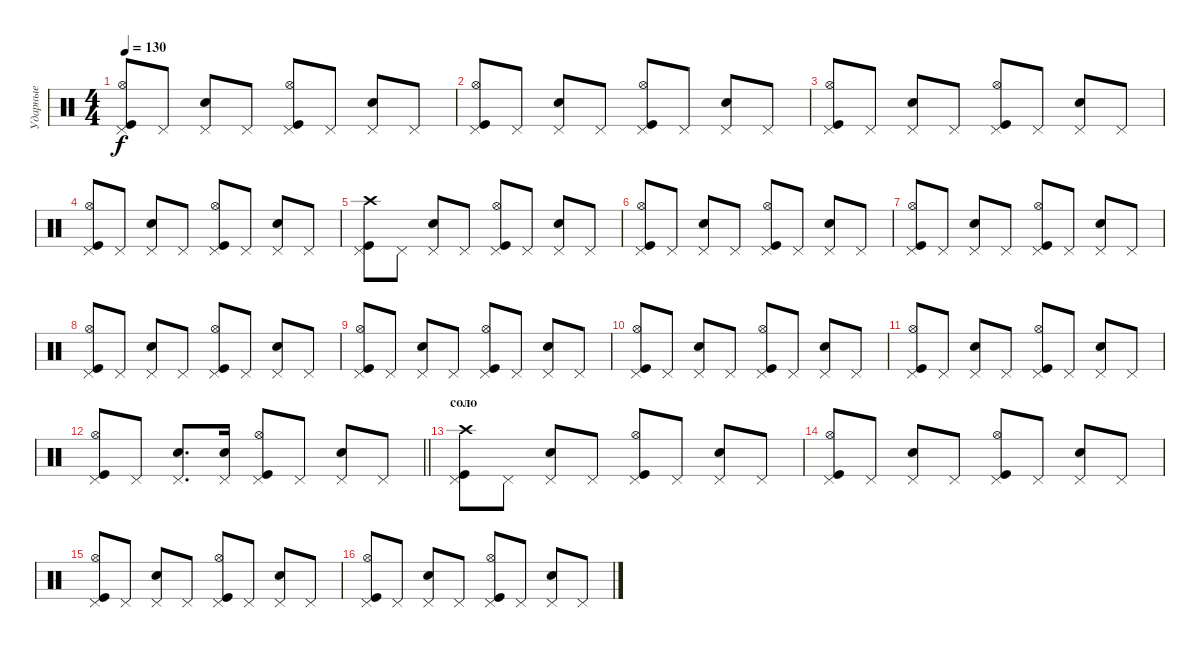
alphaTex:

\track ("Ударные" "Ударные") {instrument percussion}
\staff {score}
\articulation defaults
\ts (4 4)
\tempo 130
\clef neutral
\ks c
("Pedal Hi-Hat (hit)" "Hi-Hat (open)" "Kick (hit)").8{dy f} "Pedal Hi-Hat (hit)".8 ("Pedal Hi-Hat (hit)" "Snare (hit) 2").8 "Pedal Hi-Hat (hit)".8 ("Pedal Hi-Hat (hit)" "Hi-Hat (open)" "Kick (hit)").8 "Pedal Hi-Hat (hit)".8 ("Pedal Hi-Hat (hit)" "Snare (hit) 2").8 "Pedal Hi-Hat (hit)".8 |
("Pedal Hi-Hat (hit)" "Hi-Hat (open)" "Kick (hit)").8 "Pedal Hi-Hat (hit)".8 ("Pedal Hi-Hat (hit)" "Snare (hit) 2").8 "Pedal Hi-Hat (hit)".8 ("Pedal Hi-Hat (hit)" "Hi-Hat (open)" "Kick (hit)").8 "Pedal Hi-Hat (hit)".8 ("Pedal Hi-Hat (hit)" "Snare (hit) 2").8 "Pedal Hi-Hat (hit)".8 |
("Pedal Hi-Hat (hit)" "Hi-Hat (open)" "Kick (hit)").8 "Pedal Hi-Hat (hit)".8 ("Pedal Hi-Hat (hit)" "Snare (hit) 2").8 "Pedal Hi-Hat (hit)".8 ("Pedal Hi-Hat (hit)" "Hi-Hat (open)" "Kick (hit)").8 "Pedal Hi-Hat (hit)".8 ("Pedal Hi-Hat (hit)" "Snare (hit) 2").8 "Pedal Hi-Hat (hit)".8 |
("Pedal Hi-Hat (hit)" "Hi-Hat (open)" "Kick (hit)").8 "Pedal Hi-Hat (hit)".8 ("Pedal Hi-Hat (hit)" "Snare (hit) 2").8 "Pedal Hi-Hat (hit)".8 ("Pedal Hi-Hat (hit)" "Hi-Hat (open)" "Kick (hit)").8 "Pedal Hi-Hat (hit)".8 ("Pedal Hi-Hat (hit)" "Snare (hit) 2").8 "Pedal Hi-Hat (hit)".8 |
("Pedal Hi-Hat (hit)" "Crash high (hit)" "Kick (hit)").8 "Pedal Hi-Hat (hit)".8 ("Pedal Hi-Hat (hit)" "Snare (hit) 2").8 "Pedal Hi-Hat (hit)".8 ("Pedal Hi-Hat (hit)" "Hi-Hat (open)" "Kick (hit)").8 "Pedal Hi-Hat (hit)".8 ("Pedal Hi-Hat (hit)" "Snare (hit) 2").8 "Pedal Hi-Hat (hit)".8 |
("Pedal Hi-Hat (hit)" "Hi-Hat (open)" "Kick (hit)").8 "Pedal Hi-Hat (hit)".8 ("Pedal Hi-Hat (hit)" "Snare (hit) 2").8 "Pedal Hi-Hat (hit)".8 ("Pedal Hi-Hat (hit)" "Hi-Hat (open)" "Kick (hit)").8 "Pedal Hi-Hat (hit)".8 ("Pedal Hi-Hat (hit)" "Snare (hit) 2").8 "Pedal Hi-Hat (hit)".8 |
("Pedal Hi-Hat (hit)" "Hi-Hat (open)" "Kick (hit)").8 "Pedal Hi-Hat (hit)".8 ("Pedal Hi-Hat (hit)" "Snare (hit) 2").8 "Pedal Hi-Hat (hit)".8 ("Pedal Hi-Hat (hit)" "Hi-Hat (open)" "Kick (hit)").8 "Pedal Hi-Hat (hit)".8 ("Pedal Hi-Hat (hit)" "Snare (hit) 2").8 "Pedal Hi-Hat (hit)".8 |
("Pedal Hi-Hat (hit)" "Hi-Hat (open)" "Kick (hit)").8 "Pedal Hi-Hat (hit)".8 ("Pedal Hi-Hat (hit)" "Snare (hit) 2").8 "Pedal Hi-Hat (hit)".8 ("Pedal Hi-Hat (hit)" "Hi-Hat (open)" "Kick (hit)").8 "Pedal Hi-Hat (hit)".8 ("Pedal Hi-Hat (hit)" "Snare (hit) 2").8 "Pedal Hi-Hat (hit)".8 |
("Pedal Hi-Hat (hit)" "Hi-Hat (open)" "Kick (hit)").8 "Pedal Hi-Hat (hit)".8 ("Pedal Hi-Hat (hit)" "Snare (hit) 2").8 "Pedal Hi-Hat (hit)".8 ("Pedal Hi-Hat (hit)" "Hi-Hat (open)" "Kick (hit)").8 "Pedal Hi-Hat (hit)".8 ("Pedal Hi-Hat (hit)" "Snare (hit) 2").8 "Pedal Hi-Hat (hit)".8 |
("Pedal Hi-Hat (hit)" "Hi-Hat (open)" "Kick (hit)").8 "Pedal Hi-Hat (hit)".8 ("Pedal Hi-Hat (hit)" "Snare (hit) 2").8 "Pedal Hi-Hat (hit)".8 ("Pedal Hi-Hat (hit)" "Hi-Hat (open)" "Kick (hit)").8 "Pedal Hi-Hat (hit)".8 ("Pedal Hi-Hat (hit)" "Snare (hit) 2").8 "Pedal Hi-Hat (hit)".8 |
("Pedal Hi-Hat (hit)" "Hi-Hat (open)" "Kick (hit)").8 "Pedal Hi-Hat (hit)".8 ("Pedal Hi-Hat (hit)" "Snare (hit) 2").8 "Pedal Hi-Hat (hit)".8 ("Pedal Hi-Hat (hit)" "Hi-Hat (open)" "Kick (hit)").8 "Pedal Hi-Hat (hit)".8 ("Pedal Hi-Hat (hit)" "Snare (hit) 2").8 "Pedal Hi-Hat (hit)".8 |
\barLineRight lightlight
("Pedal Hi-Hat (hit)" "Hi-Hat (open)" "Kick (hit)").8 "Pedal Hi-Hat (hit)".8 ("Pedal Hi-Hat (hit)" "Snare (hit) 2").8{d} ("Pedal Hi-Hat (hit)" "Snare (hit) 2").16 ("Pedal Hi-Hat (hit)" "Hi-Hat (open)" "Kick (hit)").8 "Pedal Hi-Hat (hit)".8 ("Pedal Hi-Hat (hit)" "Snare (hit) 2").8 "Pedal Hi-Hat (hit)".8 |
\section ("" "соло")
("Pedal Hi-Hat (hit)" "Crash high (hit)" "Kick (hit)").8 "Pedal Hi-Hat (hit)".8 ("Pedal Hi-Hat (hit)" "Snare (hit) 2").8 "Pedal Hi-Hat (hit)".8 ("Pedal Hi-Hat (hit)" "Hi-Hat (open)" "Kick (hit)").8 "Pedal Hi-Hat (hit)".8 ("Pedal Hi-Hat (hit)" "Snare (hit) 2").8 "Pedal Hi-Hat (hit)".8 |
("Pedal Hi-Hat (hit)" "Hi-Hat (open)" "Kick (hit)").8 "Pedal Hi-Hat (hit)".8 ("Pedal Hi-Hat (hit)" "Snare (hit) 2").8 "Pedal Hi-Hat (hit)".8 ("Pedal Hi-Hat (hit)" "Hi-Hat (open)" "Kick (hit)").8 "Pedal Hi-Hat (hit)".8 ("Pedal Hi-Hat (hit)" "Snare (hit) 2").8 "Pedal Hi-Hat (hit)".8 |
("Pedal Hi-Hat (hit)" "Hi-Hat (open)" "Kick (hit)").8 "Pedal Hi-Hat (hit)".8 ("Pedal Hi-Hat (hit)" "Snare (hit) 2").8 "Pedal Hi-Hat (hit)".8 ("Pedal Hi-Hat (hit)" "Hi-Hat (open)" "Kick (hit)").8 "Pedal Hi-Hat (hit)".8 ("Pedal Hi-Hat (hit)" "Snare (hit) 2").8 "Pedal Hi-Hat (hit)".8 |
("Pedal Hi-Hat (hit)" "Hi-Hat (open)" "Kick (hit)").8 "Pedal Hi-Hat (hit)".8 ("Pedal Hi-Hat (hit)" "Snare (hit) 2").8 "Pedal Hi-Hat (hit)".8 ("Pedal Hi-Hat (hit)" "Hi-Hat (open)" "Kick (hit)").8 "Pedal Hi-Hat (hit)".8 ("Pedal Hi-Hat (hit)" "Snare (hit) 2").8 "Pedal Hi-Hat (hit)".8
